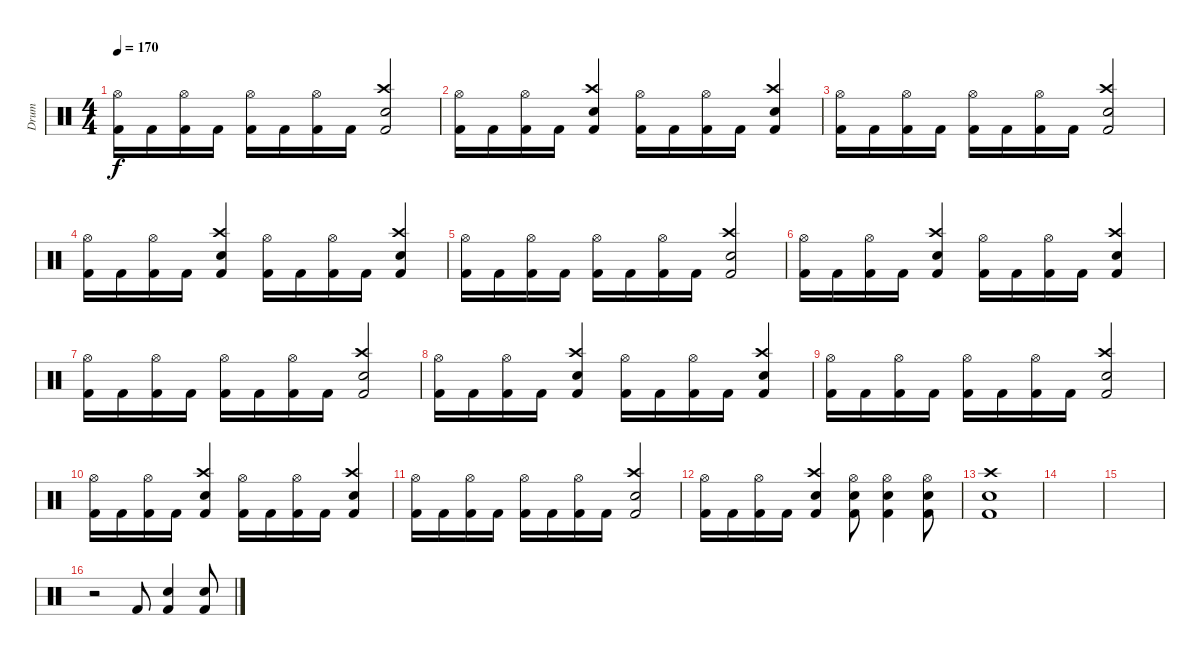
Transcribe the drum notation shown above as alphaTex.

\track ("Drum" "Drum") {instrument percussion}
\staff {score}
\articulation defaults
\ts (4 4)
\tempo 170
\clef neutral
\ks c
("Hi-Hat (open)" "Kick (hit) 2").16{dy f} "Kick (hit) 2".16 ("Hi-Hat (open)" "Kick (hit) 2").16 "Kick (hit) 2".16 ("Hi-Hat (open)" "Kick (hit) 2").16 "Kick (hit) 2".16 ("Hi-Hat (open)" "Kick (hit) 2").16 "Kick (hit) 2".16 ("Crash high (hit)" "Electric Snare (hit)" "Kick (hit) 2").2 |
("Hi-Hat (open)" "Kick (hit) 2").16 "Kick (hit) 2".16 ("Hi-Hat (open)" "Kick (hit) 2").16 "Kick (hit) 2".16 ("Crash high (hit)" "Electric Snare (hit)" "Kick (hit) 2").4 ("Hi-Hat (open)" "Kick (hit) 2").16 "Kick (hit) 2".16 ("Hi-Hat (open)" "Kick (hit) 2").16 "Kick (hit) 2".16 ("Crash high (hit)" "Electric Snare (hit)" "Kick (hit) 2").4 |
("Hi-Hat (open)" "Kick (hit) 2").16 "Kick (hit) 2".16 ("Hi-Hat (open)" "Kick (hit) 2").16 "Kick (hit) 2".16 ("Hi-Hat (open)" "Kick (hit) 2").16 "Kick (hit) 2".16 ("Hi-Hat (open)" "Kick (hit) 2").16 "Kick (hit) 2".16 ("Crash high (hit)" "Electric Snare (hit)" "Kick (hit) 2").2 |
("Hi-Hat (open)" "Kick (hit) 2").16 "Kick (hit) 2".16 ("Hi-Hat (open)" "Kick (hit) 2").16 "Kick (hit) 2".16 ("Crash high (hit)" "Electric Snare (hit)" "Kick (hit) 2").4 ("Hi-Hat (open)" "Kick (hit) 2").16 "Kick (hit) 2".16 ("Hi-Hat (open)" "Kick (hit) 2").16 "Kick (hit) 2".16 ("Crash high (hit)" "Electric Snare (hit)" "Kick (hit) 2").4 |
("Hi-Hat (open)" "Kick (hit) 2").16 "Kick (hit) 2".16 ("Hi-Hat (open)" "Kick (hit) 2").16 "Kick (hit) 2".16 ("Hi-Hat (open)" "Kick (hit) 2").16 "Kick (hit) 2".16 ("Hi-Hat (open)" "Kick (hit) 2").16 "Kick (hit) 2".16 ("Crash high (hit)" "Electric Snare (hit)" "Kick (hit) 2").2 |
("Hi-Hat (open)" "Kick (hit) 2").16 "Kick (hit) 2".16 ("Hi-Hat (open)" "Kick (hit) 2").16 "Kick (hit) 2".16 ("Crash high (hit)" "Electric Snare (hit)" "Kick (hit) 2").4 ("Hi-Hat (open)" "Kick (hit) 2").16 "Kick (hit) 2".16 ("Hi-Hat (open)" "Kick (hit) 2").16 "Kick (hit) 2".16 ("Crash high (hit)" "Electric Snare (hit)" "Kick (hit) 2").4 |
("Hi-Hat (open)" "Kick (hit) 2").16 "Kick (hit) 2".16 ("Hi-Hat (open)" "Kick (hit) 2").16 "Kick (hit) 2".16 ("Hi-Hat (open)" "Kick (hit) 2").16 "Kick (hit) 2".16 ("Hi-Hat (open)" "Kick (hit) 2").16 "Kick (hit) 2".16 ("Crash high (hit)" "Electric Snare (hit)" "Kick (hit) 2").2 |
("Hi-Hat (open)" "Kick (hit) 2").16 "Kick (hit) 2".16 ("Hi-Hat (open)" "Kick (hit) 2").16 "Kick (hit) 2".16 ("Crash high (hit)" "Electric Snare (hit)" "Kick (hit) 2").4 ("Hi-Hat (open)" "Kick (hit) 2").16 "Kick (hit) 2".16 ("Hi-Hat (open)" "Kick (hit) 2").16 "Kick (hit) 2".16 ("Crash high (hit)" "Electric Snare (hit)" "Kick (hit) 2").4 |
("Hi-Hat (open)" "Kick (hit) 2").16 "Kick (hit) 2".16 ("Hi-Hat (open)" "Kick (hit) 2").16 "Kick (hit) 2".16 ("Hi-Hat (open)" "Kick (hit) 2").16 "Kick (hit) 2".16 ("Hi-Hat (open)" "Kick (hit) 2").16 "Kick (hit) 2".16 ("Crash high (hit)" "Electric Snare (hit)" "Kick (hit) 2").2 |
("Hi-Hat (open)" "Kick (hit) 2").16 "Kick (hit) 2".16 ("Hi-Hat (open)" "Kick (hit) 2").16 "Kick (hit) 2".16 ("Crash high (hit)" "Electric Snare (hit)" "Kick (hit) 2").4 ("Hi-Hat (open)" "Kick (hit) 2").16 "Kick (hit) 2".16 ("Hi-Hat (open)" "Kick (hit) 2").16 "Kick (hit) 2".16 ("Crash high (hit)" "Electric Snare (hit)" "Kick (hit) 2").4 |
("Hi-Hat (open)" "Kick (hit) 2").16 "Kick (hit) 2".16 ("Hi-Hat (open)" "Kick (hit) 2").16 "Kick (hit) 2".16 ("Hi-Hat (open)" "Kick (hit) 2").16 "Kick (hit) 2".16 ("Hi-Hat (open)" "Kick (hit) 2").16 "Kick (hit) 2".16 ("Crash high (hit)" "Electric Snare (hit)" "Kick (hit) 2").2 |
("Hi-Hat (open)" "Kick (hit) 2").16 "Kick (hit) 2".16 ("Hi-Hat (open)" "Kick (hit) 2").16 "Kick (hit) 2".16 ("Crash high (hit)" "Electric Snare (hit)" "Kick (hit) 2").4 ("Hi-Hat (open)" "Electric Snare (hit)" "Kick (hit) 2").8 ("Hi-Hat (open)" "Electric Snare (hit)" "Kick (hit) 2").4 ("Hi-Hat (open)" "Electric Snare (hit)" "Kick (hit) 2").8 |
("Crash high (hit)" "Electric Snare (hit)" "Kick (hit) 2").1 |
|
|
r.2 "Kick (hit) 2".8 ("Electric Snare (hit)" "Kick (hit) 2").4 ("Electric Snare (hit)" "Kick (hit) 2").8
